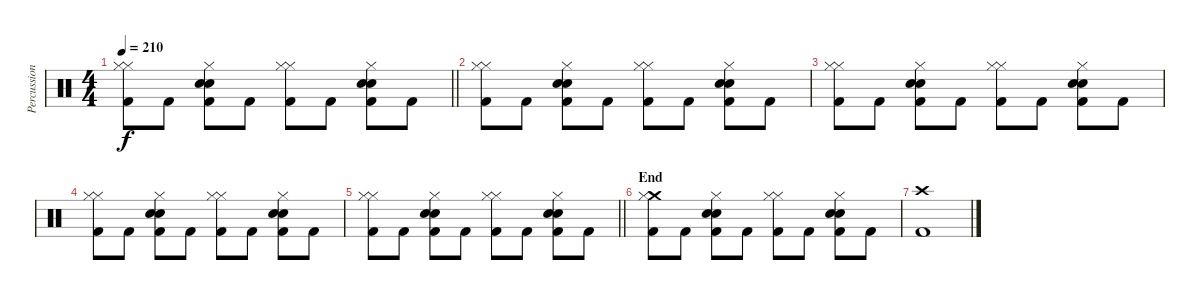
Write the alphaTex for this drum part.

\track ("Percussion" "Percussion") {instrument percussion}
\staff {score}
\articulation defaults
\ts (4 4)
\tempo 210
\clef neutral
\barLineRight lightlight
\ks c
("Hi-Hat (closed)" "Hi-Hat (closed)" "Kick (hit) 2").8{dy f} "Kick (hit) 2".8 ("Hi-Hat (closed)" "Snare (hit) 2" "Electric Snare (hit)" "Kick (hit) 2").8 "Kick (hit) 2".8 ("Hi-Hat (closed)" "Hi-Hat (closed)" "Kick (hit) 2").8 "Kick (hit) 2".8 ("Hi-Hat (closed)" "Snare (hit) 2" "Electric Snare (hit)" "Kick (hit) 2").8 "Kick (hit) 2".8 |
("Hi-Hat (closed)" "Hi-Hat (closed)" "Kick (hit) 2").8 "Kick (hit) 2".8 ("Hi-Hat (closed)" "Snare (hit) 2" "Electric Snare (hit)" "Kick (hit) 2").8 "Kick (hit) 2".8 ("Hi-Hat (closed)" "Hi-Hat (closed)" "Kick (hit) 2").8 "Kick (hit) 2".8 ("Hi-Hat (closed)" "Snare (hit) 2" "Electric Snare (hit)" "Kick (hit) 2").8 "Kick (hit) 2".8 |
("Hi-Hat (closed)" "Hi-Hat (closed)" "Kick (hit) 2").8 "Kick (hit) 2".8 ("Hi-Hat (closed)" "Snare (hit) 2" "Electric Snare (hit)" "Kick (hit) 2").8 "Kick (hit) 2".8 ("Hi-Hat (closed)" "Hi-Hat (closed)" "Kick (hit) 2").8 "Kick (hit) 2".8 ("Hi-Hat (closed)" "Snare (hit) 2" "Electric Snare (hit)" "Kick (hit) 2").8 "Kick (hit) 2".8 |
("Hi-Hat (closed)" "Hi-Hat (closed)" "Kick (hit) 2").8 "Kick (hit) 2".8 ("Hi-Hat (closed)" "Snare (hit) 2" "Electric Snare (hit)" "Kick (hit) 2").8 "Kick (hit) 2".8 ("Hi-Hat (closed)" "Hi-Hat (closed)" "Kick (hit) 2").8 "Kick (hit) 2".8 ("Hi-Hat (closed)" "Snare (hit) 2" "Electric Snare (hit)" "Kick (hit) 2").8 "Kick (hit) 2".8 |
\barLineRight lightlight
("Hi-Hat (closed)" "Hi-Hat (closed)" "Kick (hit) 2").8 "Kick (hit) 2".8 ("Hi-Hat (closed)" "Snare (hit) 2" "Electric Snare (hit)" "Kick (hit) 2").8 "Kick (hit) 2".8 ("Hi-Hat (closed)" "Hi-Hat (closed)" "Kick (hit) 2").8 "Kick (hit) 2".8 ("Hi-Hat (closed)" "Snare (hit) 2" "Electric Snare (hit)" "Kick (hit) 2").8 "Kick (hit) 2".8 |
\section ("" "End")
("Crash medium (hit)" "Hi-Hat (closed)" "Kick (hit) 2").8 "Kick (hit) 2".8 ("Hi-Hat (closed)" "Snare (hit) 2" "Electric Snare (hit)" "Kick (hit) 2").8 "Kick (hit) 2".8 ("Hi-Hat (closed)" "Hi-Hat (closed)" "Kick (hit) 2").8 "Kick (hit) 2".8 ("Hi-Hat (closed)" "Snare (hit) 2" "Electric Snare (hit)" "Kick (hit) 2").8 "Kick (hit) 2".8 |
("Crash high (hit)" "Kick (hit) 2").1
